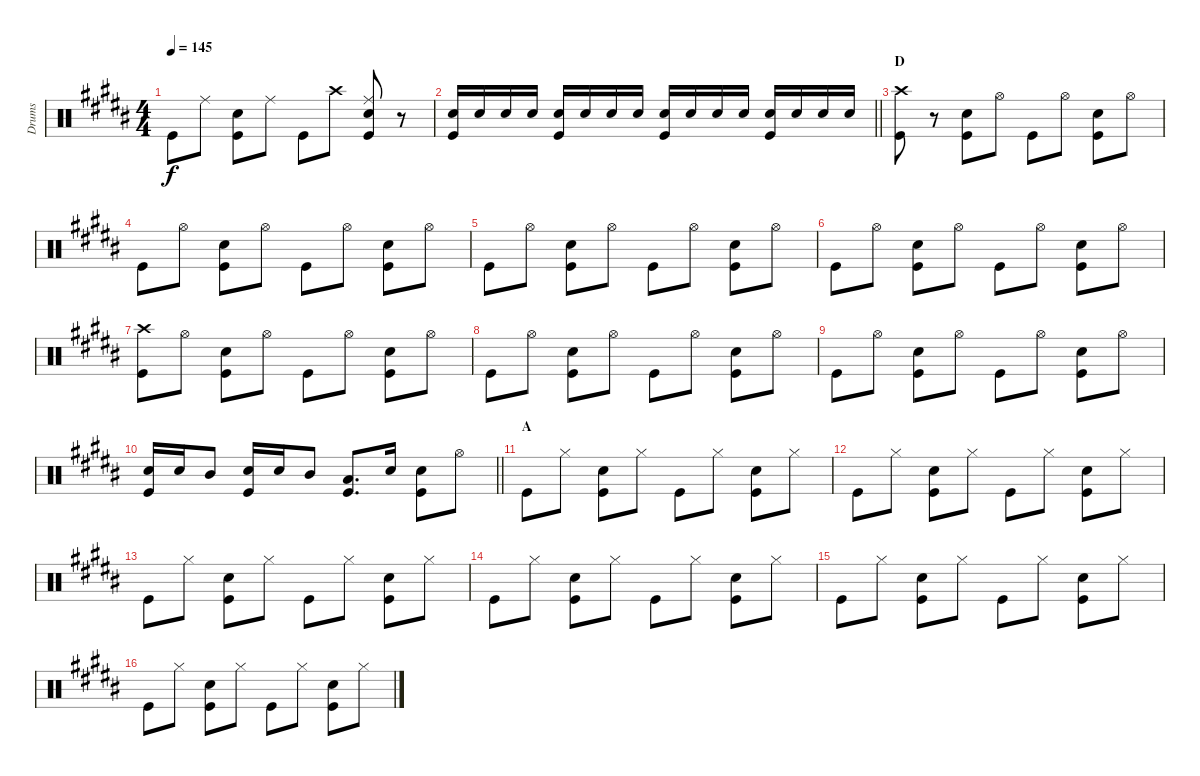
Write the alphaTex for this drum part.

\track ("Drums" "Drums") {instrument percussion}
\staff {score}
\articulation defaults
\ts (4 4)
\tempo 145
\clef neutral
\ks b "Kick (hit)".8{dy f} "Ride (middle)".8
("Snare (hit) 2" "Kick (hit)").8 "Ride (middle)".8 "Kick (hit)".8 "Crash high (hit)".8 ("Ride (middle)" "Snare (hit) 2" "Kick (hit)").8 r.8 |
\barLineRight lightlight
("Snare (hit) 2" "Kick (hit)").16 "Snare (hit) 2".16 "Snare (hit) 2".16 "Snare (hit) 2".16 ("Snare (hit) 2" "Kick (hit)").16 "Snare (hit) 2".16 "Snare (hit) 2".16 "Snare (hit) 2".16 ("Snare (hit) 2" "Kick (hit)").16 "Snare (hit) 2".16 "Snare (hit) 2".16 "Snare (hit) 2".16 ("Snare (hit) 2" "Kick (hit)").16 "Snare (hit) 2".16 "Snare (hit) 2".16 "Snare (hit) 2".16 |
\section ("" "D")
("Crash high (hit)" "Kick (hit)").8 r.8 ("Snare (hit) 2" "Kick (hit)").8 "Hi-Hat (open)".8 "Kick (hit)".8 "Hi-Hat (open)".8 ("Snare (hit) 2" "Kick (hit)").8 "Hi-Hat (open)".8 |
"Kick (hit)".8 "Hi-Hat (open)".8 ("Snare (hit) 2" "Kick (hit)").8 "Hi-Hat (open)".8 "Kick (hit)".8 "Hi-Hat (open)".8 ("Snare (hit) 2" "Kick (hit)").8 "Hi-Hat (open)".8 |
"Kick (hit)".8 "Hi-Hat (open)".8 ("Snare (hit) 2" "Kick (hit)").8 "Hi-Hat (open)".8 "Kick (hit)".8 "Hi-Hat (open)".8 ("Snare (hit) 2" "Kick (hit)").8 "Hi-Hat (open)".8 |
"Kick (hit)".8 "Hi-Hat (open)".8 ("Snare (hit) 2" "Kick (hit)").8 "Hi-Hat (open)".8 "Kick (hit)".8 "Hi-Hat (open)".8 ("Snare (hit) 2" "Kick (hit)").8 "Hi-Hat (open)".8 |
("Crash high (hit)" "Kick (hit)").8 "Hi-Hat (open)".8 ("Snare (hit) 2" "Kick (hit)").8 "Hi-Hat (open)".8 "Kick (hit)".8 "Hi-Hat (open)".8 ("Snare (hit) 2" "Kick (hit)").8 "Hi-Hat (open)".8 |
"Kick (hit)".8 "Hi-Hat (open)".8 ("Snare (hit) 2" "Kick (hit)").8 "Hi-Hat (open)".8 "Kick (hit)".8 "Hi-Hat (open)".8 ("Snare (hit) 2" "Kick (hit)").8 "Hi-Hat (open)".8 |
"Kick (hit)".8 "Hi-Hat (open)".8 ("Snare (hit) 2" "Kick (hit)").8 "Hi-Hat (open)".8 "Kick (hit)".8 "Hi-Hat (open)".8 ("Snare (hit) 2" "Kick (hit)").8 "Hi-Hat (open)".8 |
\barLineRight lightlight
("Snare (hit) 2" "Kick (hit)").16 "Snare (hit) 2".16 "Mid Tom (hit)".8 ("Snare (hit) 2" "Kick (hit)").16 "Snare (hit) 2".16 "Mid Tom (hit)".8 ("Low Tom (hit)" "Kick (hit)").8{d} "Snare (hit) 2".16 ("Snare (hit) 2" "Kick (hit)").8 "Hi-Hat (open)".8 |
\section ("" "A")
"Kick (hit)".8 "Hi-Hat (closed)".8 ("Snare (hit) 2" "Kick (hit)").8 "Hi-Hat (closed)".8 "Kick (hit)".8 "Hi-Hat (closed)".8 ("Snare (hit) 2" "Kick (hit)").8 "Hi-Hat (closed)".8 |
"Kick (hit)".8 "Hi-Hat (closed)".8 ("Snare (hit) 2" "Kick (hit)").8 "Hi-Hat (closed)".8 "Kick (hit)".8 "Hi-Hat (closed)".8 ("Snare (hit) 2" "Kick (hit)").8 "Hi-Hat (closed)".8 |
"Kick (hit)".8 "Hi-Hat (closed)".8 ("Snare (hit) 2" "Kick (hit)").8 "Hi-Hat (closed)".8 "Kick (hit)".8 "Hi-Hat (closed)".8 ("Snare (hit) 2" "Kick (hit)").8 "Hi-Hat (closed)".8 |
"Kick (hit)".8 "Hi-Hat (closed)".8 ("Snare (hit) 2" "Kick (hit)").8 "Hi-Hat (closed)".8 "Kick (hit)".8 "Hi-Hat (closed)".8 ("Snare (hit) 2" "Kick (hit)").8 "Hi-Hat (closed)".8 |
"Kick (hit)".8 "Hi-Hat (closed)".8 ("Snare (hit) 2" "Kick (hit)").8 "Hi-Hat (closed)".8 "Kick (hit)".8 "Hi-Hat (closed)".8 ("Snare (hit) 2" "Kick (hit)").8 "Hi-Hat (closed)".8 |
"Kick (hit)".8 "Hi-Hat (closed)".8 ("Snare (hit) 2" "Kick (hit)").8 "Hi-Hat (closed)".8 "Kick (hit)".8 "Hi-Hat (closed)".8 ("Snare (hit) 2" "Kick (hit)").8 "Hi-Hat (closed)".8
